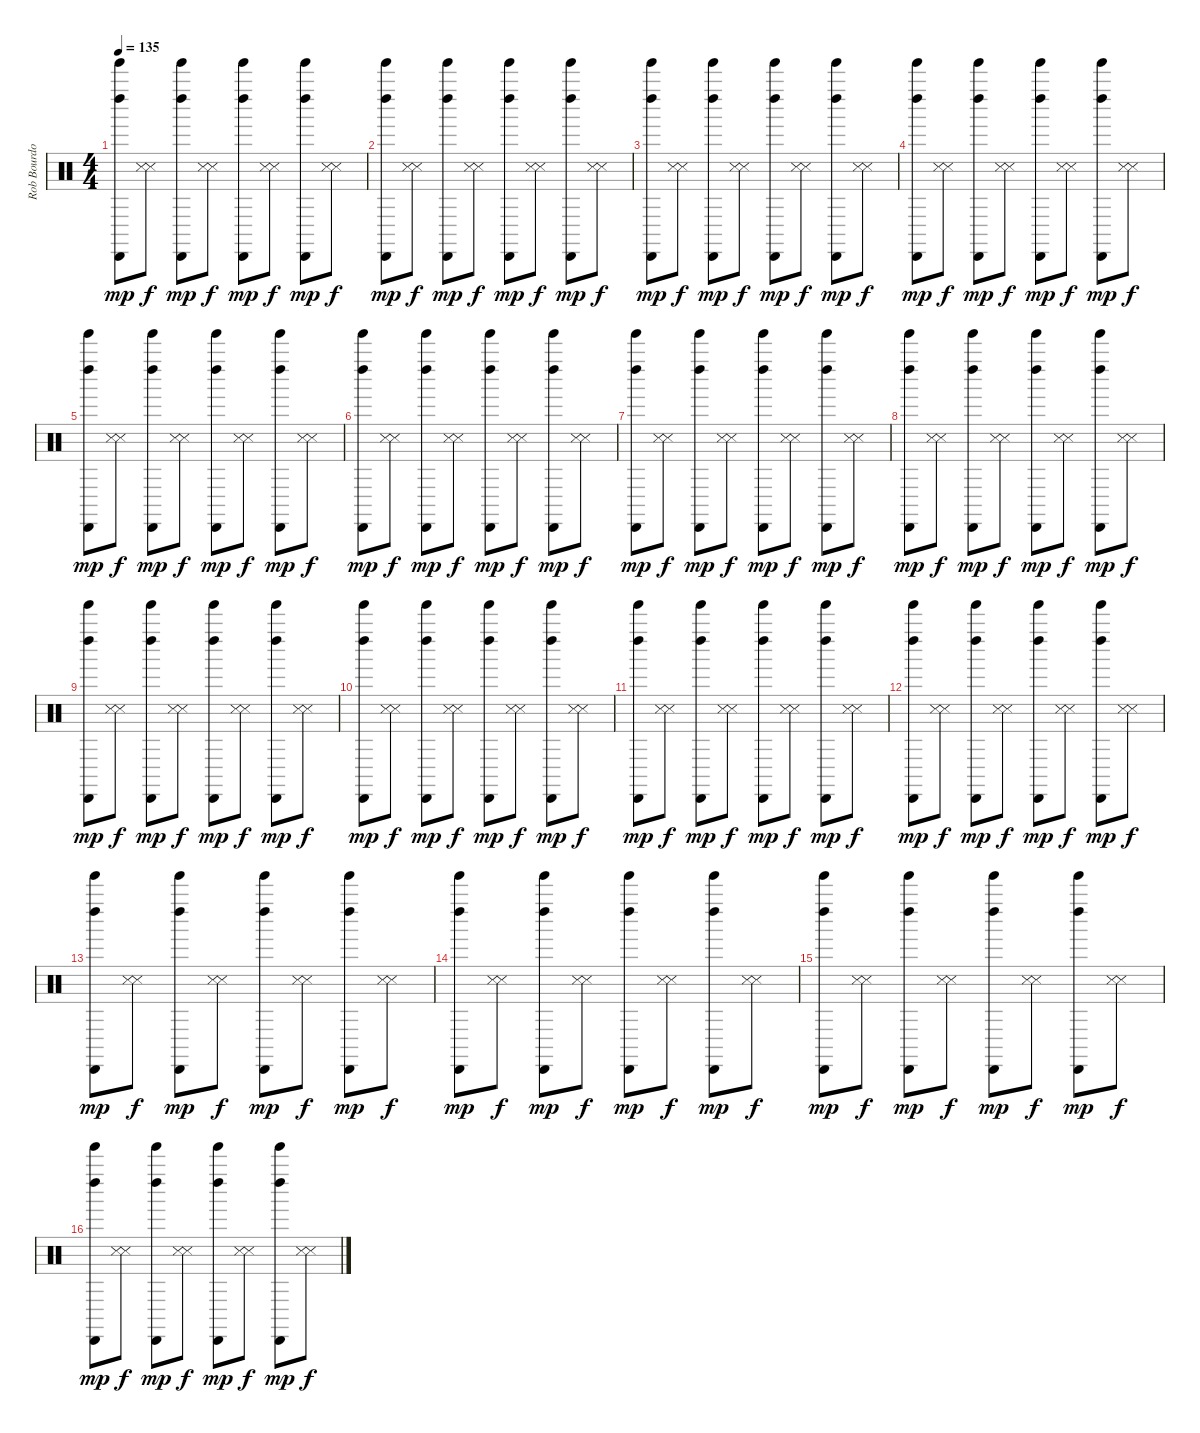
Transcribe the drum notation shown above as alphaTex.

\track ("Rob Bourdon - Beats & Drums" "Rob Bourdo") {instrument percussion}
\staff {score}
\articulation defaults
\ts (4 4)
\tempo 135
\clef neutral
\ks c
("Tinkle Bell (hit)" "Cabasa (hit)" "Left Maraca (hit)").8{dy mp} ("Metronome (hit)" "Snare (side stick) 3").8{dy f} ("Tinkle Bell (hit)" "Cabasa (hit)" "Left Maraca (hit)").8{dy mp} ("Metronome (hit)" "Snare (side stick) 3").8{dy f} ("Tinkle Bell (hit)" "Cabasa (hit)" "Left Maraca (hit)").8{dy mp} ("Metronome (hit)" "Snare (side stick) 3").8{dy f} ("Tinkle Bell (hit)" "Cabasa (hit)" "Left Maraca (hit)").8{dy mp} ("Metronome (hit)" "Snare (side stick) 3").8{dy f} |
("Tinkle Bell (hit)" "Cabasa (hit)" "Left Maraca (hit)").8{dy mp} ("Metronome (hit)" "Snare (side stick) 3").8{dy f} ("Tinkle Bell (hit)" "Cabasa (hit)" "Left Maraca (hit)").8{dy mp} ("Metronome (hit)" "Snare (side stick) 3").8{dy f} ("Tinkle Bell (hit)" "Cabasa (hit)" "Left Maraca (hit)").8{dy mp} ("Metronome (hit)" "Snare (side stick) 3").8{dy f} ("Tinkle Bell (hit)" "Cabasa (hit)" "Left Maraca (hit)").8{dy mp} ("Metronome (hit)" "Snare (side stick) 3").8{dy f} |
("Tinkle Bell (hit)" "Cabasa (hit)" "Left Maraca (hit)").8{dy mp} ("Metronome (hit)" "Snare (side stick) 3").8{dy f} ("Tinkle Bell (hit)" "Cabasa (hit)" "Left Maraca (hit)").8{dy mp} ("Metronome (hit)" "Snare (side stick) 3").8{dy f} ("Tinkle Bell (hit)" "Cabasa (hit)" "Left Maraca (hit)").8{dy mp} ("Metronome (hit)" "Snare (side stick) 3").8{dy f} ("Tinkle Bell (hit)" "Cabasa (hit)" "Left Maraca (hit)").8{dy mp} ("Metronome (hit)" "Snare (side stick) 3").8{dy f} |
("Tinkle Bell (hit)" "Cabasa (hit)" "Left Maraca (hit)").8{dy mp} ("Metronome (hit)" "Snare (side stick) 3").8{dy f} ("Tinkle Bell (hit)" "Cabasa (hit)" "Left Maraca (hit)").8{dy mp} ("Metronome (hit)" "Snare (side stick) 3").8{dy f} ("Tinkle Bell (hit)" "Cabasa (hit)" "Left Maraca (hit)").8{dy mp} ("Metronome (hit)" "Snare (side stick) 3").8{dy f} ("Tinkle Bell (hit)" "Cabasa (hit)" "Left Maraca (hit)").8{dy mp} ("Metronome (hit)" "Snare (side stick) 3").8{dy f} |
("Tinkle Bell (hit)" "Cabasa (hit)" "Left Maraca (hit)").8{dy mp} ("Metronome (hit)" "Snare (side stick) 3").8{dy f} ("Tinkle Bell (hit)" "Cabasa (hit)" "Left Maraca (hit)").8{dy mp} ("Metronome (hit)" "Snare (side stick) 3").8{dy f} ("Tinkle Bell (hit)" "Cabasa (hit)" "Left Maraca (hit)").8{dy mp} ("Metronome (hit)" "Snare (side stick) 3").8{dy f} ("Tinkle Bell (hit)" "Cabasa (hit)" "Left Maraca (hit)").8{dy mp} ("Metronome (hit)" "Snare (side stick) 3").8{dy f} |
("Tinkle Bell (hit)" "Cabasa (hit)" "Left Maraca (hit)").8{dy mp} ("Metronome (hit)" "Snare (side stick) 3").8{dy f} ("Tinkle Bell (hit)" "Cabasa (hit)" "Left Maraca (hit)").8{dy mp} ("Metronome (hit)" "Snare (side stick) 3").8{dy f} ("Tinkle Bell (hit)" "Cabasa (hit)" "Left Maraca (hit)").8{dy mp} ("Metronome (hit)" "Snare (side stick) 3").8{dy f} ("Tinkle Bell (hit)" "Cabasa (hit)" "Left Maraca (hit)").8{dy mp} ("Metronome (hit)" "Snare (side stick) 3").8{dy f} |
("Tinkle Bell (hit)" "Cabasa (hit)" "Left Maraca (hit)").8{dy mp} ("Metronome (hit)" "Snare (side stick) 3").8{dy f} ("Tinkle Bell (hit)" "Cabasa (hit)" "Left Maraca (hit)").8{dy mp} ("Metronome (hit)" "Snare (side stick) 3").8{dy f} ("Tinkle Bell (hit)" "Cabasa (hit)" "Left Maraca (hit)").8{dy mp} ("Metronome (hit)" "Snare (side stick) 3").8{dy f} ("Tinkle Bell (hit)" "Cabasa (hit)" "Left Maraca (hit)").8{dy mp} ("Metronome (hit)" "Snare (side stick) 3").8{dy f} |
("Tinkle Bell (hit)" "Cabasa (hit)" "Left Maraca (hit)").8{dy mp} ("Metronome (hit)" "Snare (side stick) 3").8{dy f} ("Tinkle Bell (hit)" "Cabasa (hit)" "Left Maraca (hit)").8{dy mp} ("Metronome (hit)" "Snare (side stick) 3").8{dy f} ("Tinkle Bell (hit)" "Cabasa (hit)" "Left Maraca (hit)").8{dy mp} ("Metronome (hit)" "Snare (side stick) 3").8{dy f} ("Tinkle Bell (hit)" "Cabasa (hit)" "Left Maraca (hit)").8{dy mp} ("Metronome (hit)" "Snare (side stick) 3").8{dy f} |
("Tinkle Bell (hit)" "Cabasa (hit)" "Left Maraca (hit)").8{dy mp} ("Metronome (hit)" "Snare (side stick) 3").8{dy f} ("Tinkle Bell (hit)" "Cabasa (hit)" "Left Maraca (hit)").8{dy mp} ("Metronome (hit)" "Snare (side stick) 3").8{dy f} ("Tinkle Bell (hit)" "Cabasa (hit)" "Left Maraca (hit)").8{dy mp} ("Metronome (hit)" "Snare (side stick) 3").8{dy f} ("Tinkle Bell (hit)" "Cabasa (hit)" "Left Maraca (hit)").8{dy mp} ("Metronome (hit)" "Snare (side stick) 3").8{dy f} |
("Tinkle Bell (hit)" "Cabasa (hit)" "Left Maraca (hit)").8{dy mp} ("Metronome (hit)" "Snare (side stick) 3").8{dy f} ("Tinkle Bell (hit)" "Cabasa (hit)" "Left Maraca (hit)").8{dy mp} ("Metronome (hit)" "Snare (side stick) 3").8{dy f} ("Tinkle Bell (hit)" "Cabasa (hit)" "Left Maraca (hit)").8{dy mp} ("Metronome (hit)" "Snare (side stick) 3").8{dy f} ("Tinkle Bell (hit)" "Cabasa (hit)" "Left Maraca (hit)").8{dy mp} ("Metronome (hit)" "Snare (side stick) 3").8{dy f} |
("Tinkle Bell (hit)" "Cabasa (hit)" "Left Maraca (hit)").8{dy mp} ("Metronome (hit)" "Snare (side stick) 3").8{dy f} ("Tinkle Bell (hit)" "Cabasa (hit)" "Left Maraca (hit)").8{dy mp} ("Metronome (hit)" "Snare (side stick) 3").8{dy f} ("Tinkle Bell (hit)" "Cabasa (hit)" "Left Maraca (hit)").8{dy mp} ("Metronome (hit)" "Snare (side stick) 3").8{dy f} ("Tinkle Bell (hit)" "Cabasa (hit)" "Left Maraca (hit)").8{dy mp} ("Metronome (hit)" "Snare (side stick) 3").8{dy f} |
("Tinkle Bell (hit)" "Cabasa (hit)" "Left Maraca (hit)").8{dy mp} ("Metronome (hit)" "Snare (side stick) 3").8{dy f} ("Tinkle Bell (hit)" "Cabasa (hit)" "Left Maraca (hit)").8{dy mp} ("Metronome (hit)" "Snare (side stick) 3").8{dy f} ("Tinkle Bell (hit)" "Cabasa (hit)" "Left Maraca (hit)").8{dy mp} ("Metronome (hit)" "Snare (side stick) 3").8{dy f} ("Tinkle Bell (hit)" "Cabasa (hit)" "Left Maraca (hit)").8{dy mp} ("Metronome (hit)" "Snare (side stick) 3").8{dy f} |
("Tinkle Bell (hit)" "Cabasa (hit)" "Left Maraca (hit)").8{dy mp} ("Metronome (hit)" "Snare (side stick) 3").8{dy f} ("Tinkle Bell (hit)" "Cabasa (hit)" "Left Maraca (hit)").8{dy mp} ("Metronome (hit)" "Snare (side stick) 3").8{dy f} ("Tinkle Bell (hit)" "Cabasa (hit)" "Left Maraca (hit)").8{dy mp} ("Metronome (hit)" "Snare (side stick) 3").8{dy f} ("Tinkle Bell (hit)" "Cabasa (hit)" "Left Maraca (hit)").8{dy mp} ("Metronome (hit)" "Snare (side stick) 3").8{dy f} |
("Tinkle Bell (hit)" "Cabasa (hit)" "Left Maraca (hit)").8{dy mp} ("Metronome (hit)" "Snare (side stick) 3").8{dy f} ("Tinkle Bell (hit)" "Cabasa (hit)" "Left Maraca (hit)").8{dy mp} ("Metronome (hit)" "Snare (side stick) 3").8{dy f} ("Tinkle Bell (hit)" "Cabasa (hit)" "Left Maraca (hit)").8{dy mp} ("Metronome (hit)" "Snare (side stick) 3").8{dy f} ("Tinkle Bell (hit)" "Cabasa (hit)" "Left Maraca (hit)").8{dy mp} ("Metronome (hit)" "Snare (side stick) 3").8{dy f} |
("Tinkle Bell (hit)" "Cabasa (hit)" "Left Maraca (hit)").8{dy mp} ("Metronome (hit)" "Snare (side stick) 3").8{dy f} ("Tinkle Bell (hit)" "Cabasa (hit)" "Left Maraca (hit)").8{dy mp} ("Metronome (hit)" "Snare (side stick) 3").8{dy f} ("Tinkle Bell (hit)" "Cabasa (hit)" "Left Maraca (hit)").8{dy mp} ("Metronome (hit)" "Snare (side stick) 3").8{dy f} ("Tinkle Bell (hit)" "Cabasa (hit)" "Left Maraca (hit)").8{dy mp} ("Metronome (hit)" "Snare (side stick) 3").8{dy f} |
("Tinkle Bell (hit)" "Cabasa (hit)" "Left Maraca (hit)").8{dy mp} ("Metronome (hit)" "Snare (side stick) 3").8{dy f} ("Tinkle Bell (hit)" "Cabasa (hit)" "Left Maraca (hit)").8{dy mp} ("Metronome (hit)" "Snare (side stick) 3").8{dy f} ("Tinkle Bell (hit)" "Cabasa (hit)" "Left Maraca (hit)").8{dy mp} ("Metronome (hit)" "Snare (side stick) 3").8{dy f} ("Tinkle Bell (hit)" "Cabasa (hit)" "Left Maraca (hit)").8{dy mp} ("Metronome (hit)" "Snare (side stick) 3").8{dy f}
